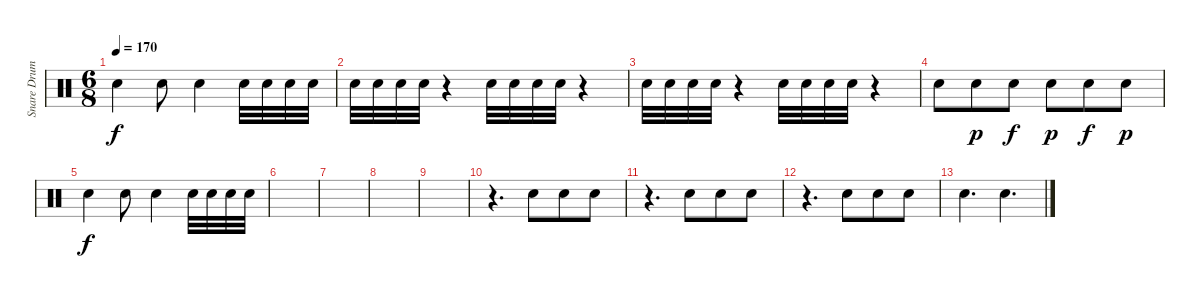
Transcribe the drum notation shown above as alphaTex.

\track ("Snare Drum" "Snare Drum") {instrument percussion}
\staff {score}
\articulation defaults
\ts (6 8)
\tempo 170
\clef neutral
\ks c "Snare (hit) 2".4{dy f} "Snare (hit) 2".8 "Snare (hit) 2".4 "Snare (hit) 2".32 "Snare (hit) 2".32 "Snare (hit) 2".32 "Snare (hit) 2".32
|
"Snare (hit) 2".32 "Snare (hit) 2".32 "Snare (hit) 2".32 "Snare (hit) 2".32 r.4 "Snare (hit) 2".32 "Snare (hit) 2".32 "Snare (hit) 2".32 "Snare (hit) 2".32 r.4 |
"Snare (hit) 2".32 "Snare (hit) 2".32 "Snare (hit) 2".32 "Snare (hit) 2".32 r.4 "Snare (hit) 2".32 "Snare (hit) 2".32 "Snare (hit) 2".32 "Snare (hit) 2".32 r.4 |
"Snare (hit) 2".8 "Snare (hit) 2".8{dy p} "Snare (hit) 2".8{dy f} "Snare (hit) 2".8{dy p} "Snare (hit) 2".8{dy f} "Snare (hit) 2".8{dy p} |
"Snare (hit) 2".4{dy f} "Snare (hit) 2".8 "Snare (hit) 2".4 "Snare (hit) 2".32 "Snare (hit) 2".32 "Snare (hit) 2".32 "Snare (hit) 2".32 |
|
|
|
|
r.4{d} "Snare (hit) 2".8 "Snare (hit) 2".8 "Snare (hit) 2".8 |
r.4{d} "Snare (hit) 2".8 "Snare (hit) 2".8 "Snare (hit) 2".8 |
r.4{d} "Snare (hit) 2".8 "Snare (hit) 2".8 "Snare (hit) 2".8 |
"Snare (hit) 2".4{d} "Snare (hit) 2".4{d}
